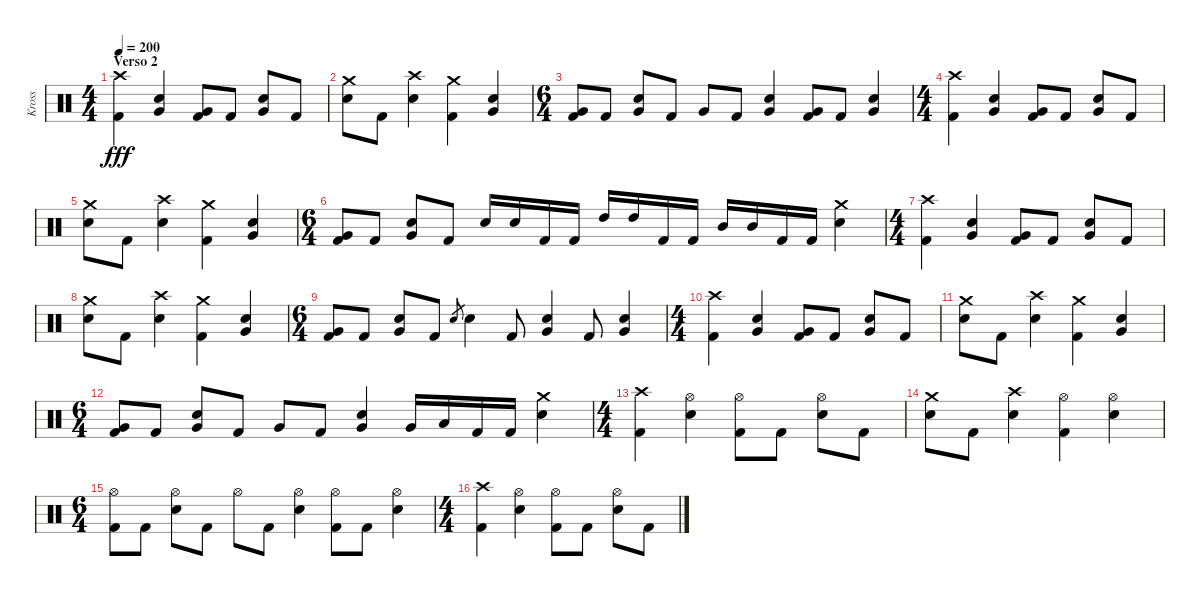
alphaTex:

\track ("Kross" "Kross") {instrument percussion}
\staff {score}
\articulation defaults
\ts (4 4)
\section ("" "Verso 2")
\tempo 200
\clef neutral
\ks c
("Crash high (hit)" "Kick (hit) 2").4{dy fff} ("Very Low Tom (hit)" "Electric Snare (hit)").4 ("Very Low Tom (hit)" "Kick (hit) 2").8 "Kick (hit) 2".8 ("Very Low Tom (hit)" "Electric Snare (hit)").8 "Kick (hit) 2".8 |
("Crash medium (hit)" "Electric Snare (hit)").8 "Kick (hit) 2".8 ("Crash high (hit)" "Electric Snare (hit)").4 ("Crash medium (hit)" "Kick (hit) 2").4 ("Very Low Tom (hit)" "Electric Snare (hit)").4 |
\ts (6 4)
("Very Low Tom (hit)" "Kick (hit) 2").8 "Kick (hit) 2".8 ("Very Low Tom (hit)" "Electric Snare (hit)").8 "Kick (hit) 2".8 "Very Low Tom (hit)".8 "Kick (hit) 2".8 ("Very Low Tom (hit)" "Electric Snare (hit)").4 ("Very Low Tom (hit)" "Kick (hit) 2").8 "Kick (hit) 2".8 ("Very Low Tom (hit)" "Electric Snare (hit)").4 |
\ts (4 4)
("Crash high (hit)" "Kick (hit) 2").4 ("Very Low Tom (hit)" "Electric Snare (hit)").4 ("Very Low Tom (hit)" "Kick (hit) 2").8 "Kick (hit) 2".8 ("Very Low Tom (hit)" "Electric Snare (hit)").8 "Kick (hit) 2".8 |
("Crash medium (hit)" "Electric Snare (hit)").8 "Kick (hit) 2".8 ("Crash high (hit)" "Electric Snare (hit)").4 ("Crash medium (hit)" "Kick (hit) 2").4 ("Very Low Tom (hit)" "Electric Snare (hit)").4 |
\ts (6 4)
("Very Low Tom (hit)" "Kick (hit) 2").8 "Kick (hit) 2".8 ("Very Low Tom (hit)" "Electric Snare (hit)").8 "Kick (hit) 2".8 "Electric Snare (hit)".16 "Electric Snare (hit)".16 "Kick (hit) 2".16 "Kick (hit) 2".16 "High Tom (hit)".16 "High Tom (hit)".16 "Kick (hit) 2".16 "Kick (hit) 2".16 "Mid Tom (hit)".16 "Mid Tom (hit)".16 "Kick (hit) 2".16 "Kick (hit) 2".16 ("Crash medium (hit)" "Electric Snare (hit)").4 |
\ts (4 4)
("Crash high (hit)" "Kick (hit) 2").4 ("Very Low Tom (hit)" "Electric Snare (hit)").4 ("Very Low Tom (hit)" "Kick (hit) 2").8 "Kick (hit) 2".8 ("Very Low Tom (hit)" "Electric Snare (hit)").8 "Kick (hit) 2".8 |
("Crash medium (hit)" "Electric Snare (hit)").8 "Kick (hit) 2".8 ("Crash high (hit)" "Electric Snare (hit)").4 ("Crash medium (hit)" "Kick (hit) 2").4 ("Very Low Tom (hit)" "Electric Snare (hit)").4 |
\ts (6 4)
("Very Low Tom (hit)" "Kick (hit) 2").8 "Kick (hit) 2".8 ("Very Low Tom (hit)" "Electric Snare (hit)").8 "Kick (hit) 2".8 "Electric Snare (hit)".8{gr} "Electric Snare (hit)".4 "Kick (hit) 2".8 ("Very Low Tom (hit)" "Electric Snare (hit)").4 "Kick (hit) 2".8 ("Very Low Tom (hit)" "Electric Snare (hit)").4 |
\ts (4 4)
("Crash high (hit)" "Kick (hit) 2").4 ("Very Low Tom (hit)" "Electric Snare (hit)").4 ("Very Low Tom (hit)" "Kick (hit) 2").8 "Kick (hit) 2".8 ("Very Low Tom (hit)" "Electric Snare (hit)").8 "Kick (hit) 2".8 |
("Crash medium (hit)" "Electric Snare (hit)").8 "Kick (hit) 2".8 ("Crash high (hit)" "Electric Snare (hit)").4 ("Crash medium (hit)" "Kick (hit) 2").4 ("Very Low Tom (hit)" "Electric Snare (hit)").4 |
\ts (6 4)
("Very Low Tom (hit)" "Kick (hit) 2").8 "Kick (hit) 2".8 ("Very Low Tom (hit)" "Electric Snare (hit)").8 "Kick (hit) 2".8 "Very Low Tom (hit)".8 "Kick (hit) 2".8 ("Very Low Tom (hit)" "Electric Snare (hit)").4 "Very Low Tom (hit)".16 "Low Tom (hit)".16 "Kick (hit) 2".16 "Kick (hit) 2".16 ("Crash medium (hit)" "Electric Snare (hit)").4 |
\ts (4 4)
("Crash high (hit)" "Kick (hit) 2").4 ("Hi-Hat (open)" "Electric Snare (hit)").4 ("Hi-Hat (open)" "Kick (hit) 2").8 "Kick (hit) 2".8 ("Hi-Hat (open)" "Electric Snare (hit)").8 "Kick (hit) 2".8 |
("Crash medium (hit)" "Electric Snare (hit)").8 "Kick (hit) 2".8 ("Crash high (hit)" "Electric Snare (hit)").4 ("Hi-Hat (open)" "Kick (hit) 2").4 ("Hi-Hat (open)" "Electric Snare (hit)").4 |
\ts (6 4)
("Hi-Hat (open)" "Kick (hit) 2").8 "Kick (hit) 2".8 ("Hi-Hat (open)" "Electric Snare (hit)").8 "Kick (hit) 2".8 "Hi-Hat (open)".8 "Kick (hit) 2".8 ("Hi-Hat (open)" "Electric Snare (hit)").4 ("Hi-Hat (open)" "Kick (hit) 2").8 "Kick (hit) 2".8 ("Hi-Hat (open)" "Electric Snare (hit)").4 |
\ts (4 4)
("Crash high (hit)" "Kick (hit) 2").4 ("Hi-Hat (open)" "Electric Snare (hit)").4 ("Hi-Hat (open)" "Kick (hit) 2").8 "Kick (hit) 2".8 ("Hi-Hat (open)" "Electric Snare (hit)").8 "Kick (hit) 2".8
